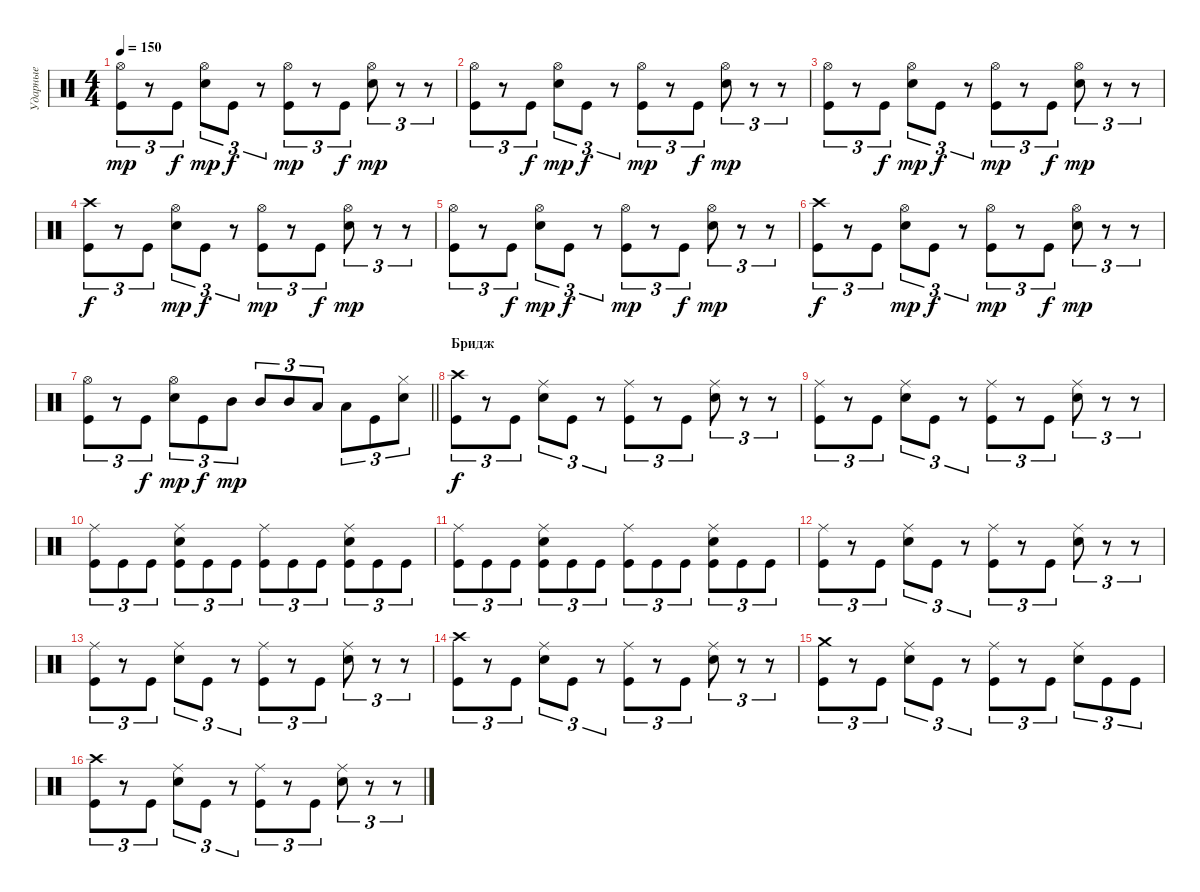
\track ("Ударные" "Ударные") {instrument percussion}
\staff {score}
\articulation defaults
\ts (4 4)
\tempo 150
\clef neutral
\ks c
("Hi-Hat (open)" "Kick (hit)").8{tu (3 2) dy mp} r.8{tu (3 2)} "Kick (hit)".8{tu (3 2) dy f} ("Hi-Hat (open)" "Snare (hit) 2").8{tu (3 2) dy mp} "Kick (hit)".8{tu (3 2) dy f} r.8{tu (3 2)} ("Hi-Hat (open)" "Kick (hit)").8{tu (3 2) dy mp} r.8{tu (3 2)} "Kick (hit)".8{tu (3 2) dy f} ("Hi-Hat (open)" "Snare (hit) 2").8{tu (3 2) dy mp} r.8{tu (3 2)} r.8{tu (3 2)} |
("Hi-Hat (open)" "Kick (hit)").8{tu (3 2)} r.8{tu (3 2)} "Kick (hit)".8{tu (3 2) dy f} ("Hi-Hat (open)" "Snare (hit) 2").8{tu (3 2) dy mp} "Kick (hit)".8{tu (3 2) dy f} r.8{tu (3 2)} ("Hi-Hat (open)" "Kick (hit)").8{tu (3 2) dy mp} r.8{tu (3 2)} "Kick (hit)".8{tu (3 2) dy f} ("Hi-Hat (open)" "Snare (hit) 2").8{tu (3 2) dy mp} r.8{tu (3 2)} r.8{tu (3 2)} |
("Hi-Hat (open)" "Kick (hit)").8{tu (3 2)} r.8{tu (3 2)} "Kick (hit)".8{tu (3 2) dy f} ("Hi-Hat (open)" "Snare (hit) 2").8{tu (3 2) dy mp} "Kick (hit)".8{tu (3 2) dy f} r.8{tu (3 2)} ("Hi-Hat (open)" "Kick (hit)").8{tu (3 2) dy mp} r.8{tu (3 2)} "Kick (hit)".8{tu (3 2) dy f} ("Hi-Hat (open)" "Snare (hit) 2").8{tu (3 2) dy mp} r.8{tu (3 2)} r.8{tu (3 2)} |
("Crash high (hit)" "Kick (hit)").8{tu (3 2) dy f} r.8{tu (3 2)} "Kick (hit)".8{tu (3 2)} ("Hi-Hat (open)" "Snare (hit) 2").8{tu (3 2) dy mp} "Kick (hit)".8{tu (3 2) dy f} r.8{tu (3 2)} ("Hi-Hat (open)" "Kick (hit)").8{tu (3 2) dy mp} r.8{tu (3 2)} "Kick (hit)".8{tu (3 2) dy f} ("Hi-Hat (open)" "Snare (hit) 2").8{tu (3 2) dy mp} r.8{tu (3 2)} r.8{tu (3 2)} |
("Hi-Hat (open)" "Kick (hit)").8{tu (3 2)} r.8{tu (3 2)} "Kick (hit)".8{tu (3 2) dy f} ("Hi-Hat (open)" "Snare (hit) 2").8{tu (3 2) dy mp} "Kick (hit)".8{tu (3 2) dy f} r.8{tu (3 2)} ("Hi-Hat (open)" "Kick (hit)").8{tu (3 2) dy mp} r.8{tu (3 2)} "Kick (hit)".8{tu (3 2) dy f} ("Hi-Hat (open)" "Snare (hit) 2").8{tu (3 2) dy mp} r.8{tu (3 2)} r.8{tu (3 2)} |
("Crash high (hit)" "Kick (hit)").8{tu (3 2) dy f} r.8{tu (3 2)} "Kick (hit)".8{tu (3 2)} ("Hi-Hat (open)" "Snare (hit) 2").8{tu (3 2) dy mp} "Kick (hit)".8{tu (3 2) dy f} r.8{tu (3 2)} ("Hi-Hat (open)" "Kick (hit)").8{tu (3 2) dy mp} r.8{tu (3 2)} "Kick (hit)".8{tu (3 2) dy f} ("Hi-Hat (open)" "Snare (hit) 2").8{tu (3 2) dy mp} r.8{tu (3 2)} r.8{tu (3 2)} |
\barLineRight lightlight
("Hi-Hat (open)" "Kick (hit)").8{tu (3 2)} r.8{tu (3 2)} "Kick (hit)".8{tu (3 2) dy f} ("Hi-Hat (open)" "Snare (hit) 2").8{tu (3 2) dy mp} "Kick (hit)".8{tu (3 2) dy f} "Mid Tom (hit)".8{tu (3 2) dy mp} "Mid Tom (hit)".8{tu (3 2)} "Mid Tom (hit)".8{tu (3 2)} "Low Tom (hit)".8{tu (3 2)} "Low Tom (hit)".8{tu (3 2)} "Kick (hit)".8{tu (3 2)} ("Hi-Hat (closed)" "Snare (hit) 2").8{tu (3 2)} |
\section ("" "Бридж")
("Crash high (hit)" "Kick (hit)").8{tu (3 2) dy f} r.8{tu (3 2)} "Kick (hit)".8{tu (3 2)} ("Ride (middle)" "Snare (hit) 2").8{tu (3 2)} "Kick (hit)".8{tu (3 2)} r.8{tu (3 2)} ("Ride (middle)" "Kick (hit)").8{tu (3 2)} r.8{tu (3 2)} "Kick (hit)".8{tu (3 2)} ("Ride (middle)" "Snare (hit) 2").8{tu (3 2)} r.8{tu (3 2)} r.8{tu (3 2)} |
("Ride (middle)" "Kick (hit)").8{tu (3 2)} r.8{tu (3 2)} "Kick (hit)".8{tu (3 2)} ("Ride (middle)" "Snare (hit) 2").8{tu (3 2)} "Kick (hit)".8{tu (3 2)} r.8{tu (3 2)} ("Ride (middle)" "Kick (hit)").8{tu (3 2)} r.8{tu (3 2)} "Kick (hit)".8{tu (3 2)} ("Ride (middle)" "Snare (hit) 2").8{tu (3 2)} r.8{tu (3 2)} r.8{tu (3 2)} |
("Ride (middle)" "Kick (hit)").8{tu (3 2)} "Kick (hit)".8{tu (3 2)} "Kick (hit)".8{tu (3 2)} ("Ride (middle)" "Snare (hit) 2" "Kick (hit)").8{tu (3 2)} "Kick (hit)".8{tu (3 2)} "Kick (hit)".8{tu (3 2)} ("Ride (middle)" "Kick (hit)").8{tu (3 2)} "Kick (hit)".8{tu (3 2)} "Kick (hit)".8{tu (3 2)} ("Ride (middle)" "Snare (hit) 2" "Kick (hit)").8{tu (3 2)} "Kick (hit)".8{tu (3 2)} "Kick (hit)".8{tu (3 2)} |
("Ride (middle)" "Kick (hit)").8{tu (3 2)} "Kick (hit)".8{tu (3 2)} "Kick (hit)".8{tu (3 2)} ("Ride (middle)" "Snare (hit) 2" "Kick (hit)").8{tu (3 2)} "Kick (hit)".8{tu (3 2)} "Kick (hit)".8{tu (3 2)} ("Ride (middle)" "Kick (hit)").8{tu (3 2)} "Kick (hit)".8{tu (3 2)} "Kick (hit)".8{tu (3 2)} ("Ride (middle)" "Snare (hit) 2" "Kick (hit)").8{tu (3 2)} "Kick (hit)".8{tu (3 2)} "Kick (hit)".8{tu (3 2)} |
("Ride (middle)" "Kick (hit)").8{tu (3 2)} r.8{tu (3 2)} "Kick (hit)".8{tu (3 2)} ("Ride (middle)" "Snare (hit) 2").8{tu (3 2)} "Kick (hit)".8{tu (3 2)} r.8{tu (3 2)} ("Ride (middle)" "Kick (hit)").8{tu (3 2)} r.8{tu (3 2)} "Kick (hit)".8{tu (3 2)} ("Ride (middle)" "Snare (hit) 2").8{tu (3 2)} r.8{tu (3 2)} r.8{tu (3 2)} |
("Ride (middle)" "Kick (hit)").8{tu (3 2)} r.8{tu (3 2)} "Kick (hit)".8{tu (3 2)} ("Ride (middle)" "Snare (hit) 2").8{tu (3 2)} "Kick (hit)".8{tu (3 2)} r.8{tu (3 2)} ("Ride (middle)" "Kick (hit)").8{tu (3 2)} r.8{tu (3 2)} "Kick (hit)".8{tu (3 2)} ("Ride (middle)" "Snare (hit) 2").8{tu (3 2)} r.8{tu (3 2)} r.8{tu (3 2)} |
("Crash high (hit)" "Kick (hit)").8{tu (3 2)} r.8{tu (3 2)} "Kick (hit)".8{tu (3 2)} ("Ride (middle)" "Snare (hit) 2").8{tu (3 2)} "Kick (hit)".8{tu (3 2)} r.8{tu (3 2)} ("Ride (middle)" "Kick (hit)").8{tu (3 2)} r.8{tu (3 2)} "Kick (hit)".8{tu (3 2)} ("Ride (middle)" "Snare (hit) 2").8{tu (3 2)} r.8{tu (3 2)} r.8{tu (3 2)} |
("Crash medium (hit)" "Kick (hit)").8{tu (3 2)} r.8{tu (3 2)} "Kick (hit)".8{tu (3 2)} ("Ride (middle)" "Snare (hit) 2").8{tu (3 2)} "Kick (hit)".8{tu (3 2)} r.8{tu (3 2)} ("Ride (middle)" "Kick (hit)").8{tu (3 2)} r.8{tu (3 2)} "Kick (hit)".8{tu (3 2)} ("Ride (middle)" "Snare (hit) 2").8{tu (3 2)} "Kick (hit)".8{tu (3 2)} "Kick (hit)".8{tu (3 2)} |
("Crash high (hit)" "Kick (hit)").8{tu (3 2)} r.8{tu (3 2)} "Kick (hit)".8{tu (3 2)} ("Ride (middle)" "Snare (hit) 2").8{tu (3 2)} "Kick (hit)".8{tu (3 2)} r.8{tu (3 2)} ("Ride (middle)" "Kick (hit)").8{tu (3 2)} r.8{tu (3 2)} "Kick (hit)".8{tu (3 2)} ("Ride (middle)" "Snare (hit) 2").8{tu (3 2)} r.8{tu (3 2)} r.8{tu (3 2)}
